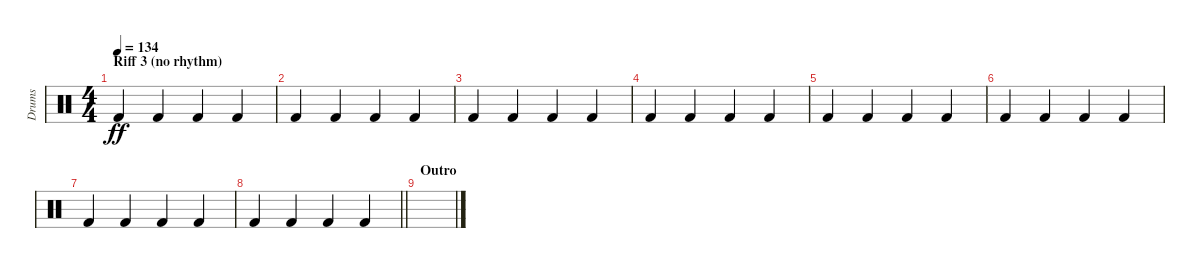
\track ("Drums" "Drums") {instrument percussion}
\staff {score}
\articulation defaults
\ts (4 4)
\section ("" "Riff 3 (no rhythm)")
\tempo 134
\clef neutral
\ks c "Kick (hit) 2".4{dy ff} "Kick (hit) 2".4 "Kick (hit) 2".4 "Kick (hit) 2".4
|
"Kick (hit) 2".4 "Kick (hit) 2".4 "Kick (hit) 2".4 "Kick (hit) 2".4 |
"Kick (hit) 2".4 "Kick (hit) 2".4 "Kick (hit) 2".4 "Kick (hit) 2".4 |
"Kick (hit) 2".4 "Kick (hit) 2".4 "Kick (hit) 2".4 "Kick (hit) 2".4 |
"Kick (hit) 2".4 "Kick (hit) 2".4 "Kick (hit) 2".4 "Kick (hit) 2".4 |
"Kick (hit) 2".4 "Kick (hit) 2".4 "Kick (hit) 2".4 "Kick (hit) 2".4 |
"Kick (hit) 2".4 "Kick (hit) 2".4 "Kick (hit) 2".4 "Kick (hit) 2".4 |
\barLineRight lightlight "Kick (hit) 2".4 "Kick (hit) 2".4 "Kick (hit) 2".4 "Kick (hit) 2".4
|
\section ("" "Outro")
